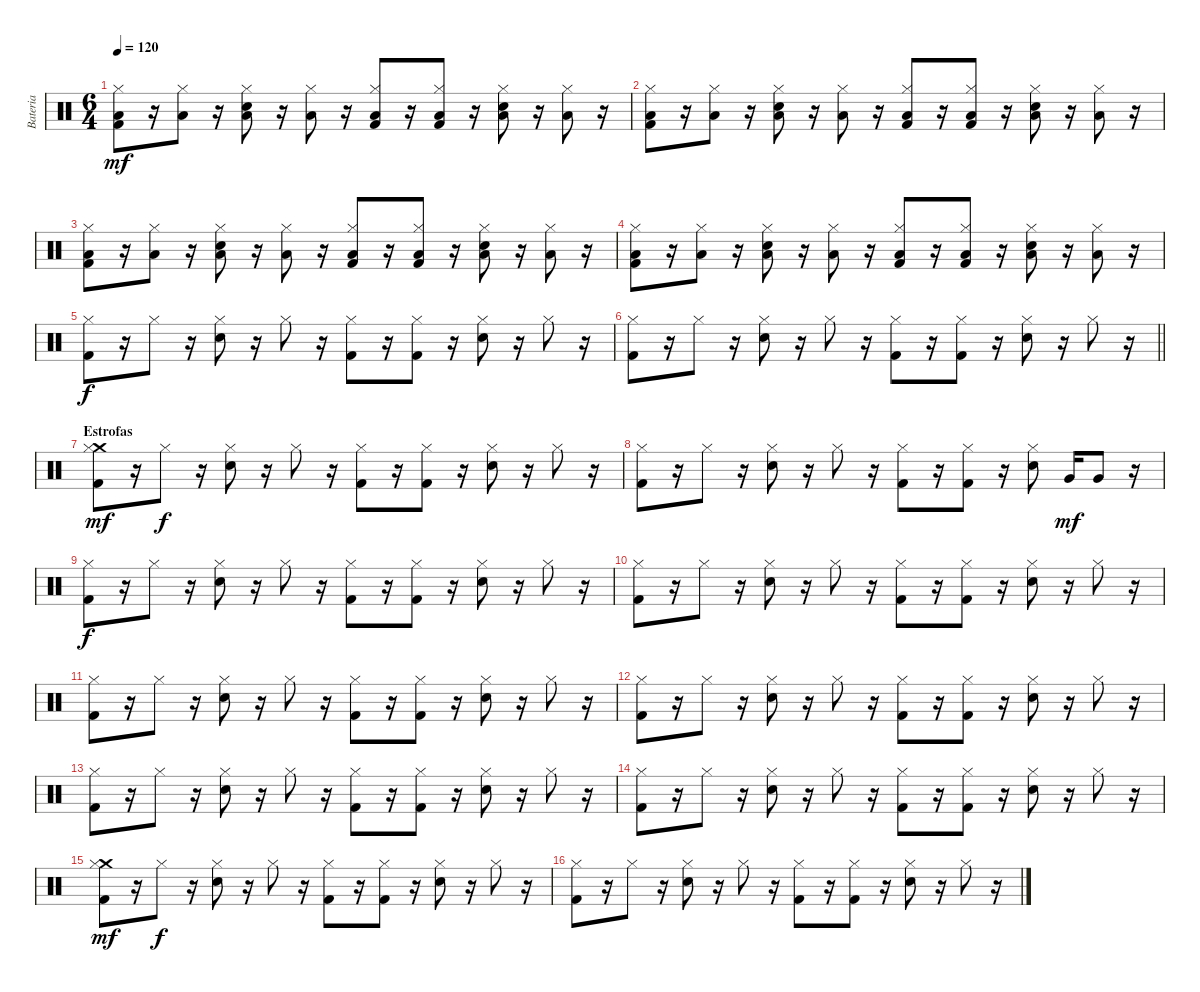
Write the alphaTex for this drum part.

\track ("Bateria" "Bateria") {instrument percussion}
\staff {score}
\articulation defaults
\ts (6 4)
\tempo 120
\clef neutral
\ks c
("Low Floor Tom (hit)" "Hi-Hat (closed)" "Kick (hit) 2").8{dy mf} r.16 ("Low Floor Tom (hit)" "Hi-Hat (closed)").8 r.16 ("Low Floor Tom (hit)" "Hi-Hat (closed)" "Snare (hit) 2").8 r.16 ("Low Floor Tom (hit)" "Hi-Hat (closed)").8 r.16 ("Low Floor Tom (hit)" "Hi-Hat (closed)" "Kick (hit) 2").8 r.16 ("Low Floor Tom (hit)" "Hi-Hat (closed)" "Kick (hit) 2").8 r.16 ("Low Floor Tom (hit)" "Hi-Hat (closed)" "Snare (hit) 2").8 r.16 ("Low Floor Tom (hit)" "Hi-Hat (closed)").8 r.16 |
("Low Floor Tom (hit)" "Hi-Hat (closed)" "Kick (hit) 2").8 r.16 ("Low Floor Tom (hit)" "Hi-Hat (closed)").8 r.16 ("Low Floor Tom (hit)" "Hi-Hat (closed)" "Snare (hit) 2").8 r.16 ("Low Floor Tom (hit)" "Hi-Hat (closed)").8 r.16 ("Low Floor Tom (hit)" "Hi-Hat (closed)" "Kick (hit) 2").8 r.16 ("Low Floor Tom (hit)" "Hi-Hat (closed)" "Kick (hit) 2").8 r.16 ("Low Floor Tom (hit)" "Hi-Hat (closed)" "Snare (hit) 2").8 r.16 ("Low Floor Tom (hit)" "Hi-Hat (closed)").8 r.16 |
("Low Floor Tom (hit)" "Hi-Hat (closed)" "Kick (hit) 2").8 r.16 ("Low Floor Tom (hit)" "Hi-Hat (closed)").8 r.16 ("Low Floor Tom (hit)" "Hi-Hat (closed)" "Snare (hit) 2").8 r.16 ("Low Floor Tom (hit)" "Hi-Hat (closed)").8 r.16 ("Low Floor Tom (hit)" "Hi-Hat (closed)" "Kick (hit) 2").8 r.16 ("Low Floor Tom (hit)" "Hi-Hat (closed)" "Kick (hit) 2").8 r.16 ("Low Floor Tom (hit)" "Hi-Hat (closed)" "Snare (hit) 2").8 r.16 ("Low Floor Tom (hit)" "Hi-Hat (closed)").8 r.16 |
("Low Floor Tom (hit)" "Hi-Hat (closed)" "Kick (hit) 2").8 r.16 ("Low Floor Tom (hit)" "Hi-Hat (closed)").8 r.16 ("Low Floor Tom (hit)" "Hi-Hat (closed)" "Snare (hit) 2").8 r.16 ("Low Floor Tom (hit)" "Hi-Hat (closed)").8 r.16 ("Low Floor Tom (hit)" "Hi-Hat (closed)" "Kick (hit) 2").8 r.16 ("Low Floor Tom (hit)" "Hi-Hat (closed)" "Kick (hit) 2").8 r.16 ("Low Floor Tom (hit)" "Hi-Hat (closed)" "Snare (hit) 2").8 r.16 ("Low Floor Tom (hit)" "Hi-Hat (closed)").8 r.16 |
("Hi-Hat (closed)" "Kick (hit) 2").8{dy f} r.16 "Hi-Hat (closed)".8 r.16 ("Hi-Hat (closed)" "Snare (hit) 2").8 r.16 "Hi-Hat (closed)".8 r.16 ("Hi-Hat (closed)" "Kick (hit) 2").8 r.16 ("Hi-Hat (closed)" "Kick (hit) 2").8 r.16 ("Hi-Hat (closed)" "Snare (hit) 2").8 r.16 "Hi-Hat (closed)".8 r.16 |
\barLineRight lightlight
("Hi-Hat (closed)" "Kick (hit) 2").8 r.16 "Hi-Hat (closed)".8 r.16 ("Hi-Hat (closed)" "Snare (hit) 2").8 r.16 "Hi-Hat (closed)".8 r.16 ("Hi-Hat (closed)" "Kick (hit) 2").8 r.16 ("Hi-Hat (closed)" "Kick (hit) 2").8 r.16 ("Hi-Hat (closed)" "Snare (hit) 2").8 r.16 "Hi-Hat (closed)".8 r.16 |
\section ("" "Estrofas")
("Crash medium (hit)" "Hi-Hat (closed)" "Kick (hit) 2").8{dy mf} r.16 "Hi-Hat (closed)".8{dy f} r.16 ("Hi-Hat (closed)" "Snare (hit) 2").8 r.16 "Hi-Hat (closed)".8 r.16 ("Hi-Hat (closed)" "Kick (hit) 2").8 r.16 ("Hi-Hat (closed)" "Kick (hit) 2").8 r.16 ("Hi-Hat (closed)" "Snare (hit) 2").8 r.16 "Hi-Hat (closed)".8 r.16 |
("Hi-Hat (closed)" "Kick (hit) 2").8 r.16 "Hi-Hat (closed)".8 r.16 ("Hi-Hat (closed)" "Snare (hit) 2").8 r.16 "Hi-Hat (closed)".8 r.16 ("Hi-Hat (closed)" "Kick (hit) 2").8 r.16 ("Hi-Hat (closed)" "Kick (hit) 2").8 r.16 ("Hi-Hat (closed)" "Snare (hit) 2").8 "Very Low Tom (hit)".16{dy mf} "Very Low Tom (hit)".8 r.16 |
("Hi-Hat (closed)" "Kick (hit) 2").8{dy f} r.16 "Hi-Hat (closed)".8 r.16 ("Hi-Hat (closed)" "Snare (hit) 2").8 r.16 "Hi-Hat (closed)".8 r.16 ("Hi-Hat (closed)" "Kick (hit) 2").8 r.16 ("Hi-Hat (closed)" "Kick (hit) 2").8 r.16 ("Hi-Hat (closed)" "Snare (hit) 2").8 r.16 "Hi-Hat (closed)".8 r.16 |
("Hi-Hat (closed)" "Kick (hit) 2").8 r.16 "Hi-Hat (closed)".8 r.16 ("Hi-Hat (closed)" "Snare (hit) 2").8 r.16 "Hi-Hat (closed)".8 r.16 ("Hi-Hat (closed)" "Kick (hit) 2").8 r.16 ("Hi-Hat (closed)" "Kick (hit) 2").8 r.16 ("Hi-Hat (closed)" "Snare (hit) 2").8 r.16 "Hi-Hat (closed)".8 r.16 |
("Hi-Hat (closed)" "Kick (hit) 2").8 r.16 "Hi-Hat (closed)".8 r.16 ("Hi-Hat (closed)" "Snare (hit) 2").8 r.16 "Hi-Hat (closed)".8 r.16 ("Hi-Hat (closed)" "Kick (hit) 2").8 r.16 ("Hi-Hat (closed)" "Kick (hit) 2").8 r.16 ("Hi-Hat (closed)" "Snare (hit) 2").8 r.16 "Hi-Hat (closed)".8 r.16 |
("Hi-Hat (closed)" "Kick (hit) 2").8 r.16 "Hi-Hat (closed)".8 r.16 ("Hi-Hat (closed)" "Snare (hit) 2").8 r.16 "Hi-Hat (closed)".8 r.16 ("Hi-Hat (closed)" "Kick (hit) 2").8 r.16 ("Hi-Hat (closed)" "Kick (hit) 2").8 r.16 ("Hi-Hat (closed)" "Snare (hit) 2").8 r.16 "Hi-Hat (closed)".8 r.16 |
("Hi-Hat (closed)" "Kick (hit) 2").8 r.16 "Hi-Hat (closed)".8 r.16 ("Hi-Hat (closed)" "Snare (hit) 2").8 r.16 "Hi-Hat (closed)".8 r.16 ("Hi-Hat (closed)" "Kick (hit) 2").8 r.16 ("Hi-Hat (closed)" "Kick (hit) 2").8 r.16 ("Hi-Hat (closed)" "Snare (hit) 2").8 r.16 "Hi-Hat (closed)".8 r.16 |
("Hi-Hat (closed)" "Kick (hit) 2").8 r.16 "Hi-Hat (closed)".8 r.16 ("Hi-Hat (closed)" "Snare (hit) 2").8 r.16 "Hi-Hat (closed)".8 r.16 ("Hi-Hat (closed)" "Kick (hit) 2").8 r.16 ("Hi-Hat (closed)" "Kick (hit) 2").8 r.16 ("Hi-Hat (closed)" "Snare (hit) 2").8 r.16 "Hi-Hat (closed)".8 r.16 |
("Crash medium (hit)" "Hi-Hat (closed)" "Kick (hit) 2").8{dy mf} r.16 "Hi-Hat (closed)".8{dy f} r.16 ("Hi-Hat (closed)" "Snare (hit) 2").8 r.16 "Hi-Hat (closed)".8 r.16 ("Hi-Hat (closed)" "Kick (hit) 2").8 r.16 ("Hi-Hat (closed)" "Kick (hit) 2").8 r.16 ("Hi-Hat (closed)" "Snare (hit) 2").8 r.16 "Hi-Hat (closed)".8 r.16 |
("Hi-Hat (closed)" "Kick (hit) 2").8 r.16 "Hi-Hat (closed)".8 r.16 ("Hi-Hat (closed)" "Snare (hit) 2").8 r.16 "Hi-Hat (closed)".8 r.16 ("Hi-Hat (closed)" "Kick (hit) 2").8 r.16 ("Hi-Hat (closed)" "Kick (hit) 2").8 r.16 ("Hi-Hat (closed)" "Snare (hit) 2").8 r.16 "Hi-Hat (closed)".8 r.16
